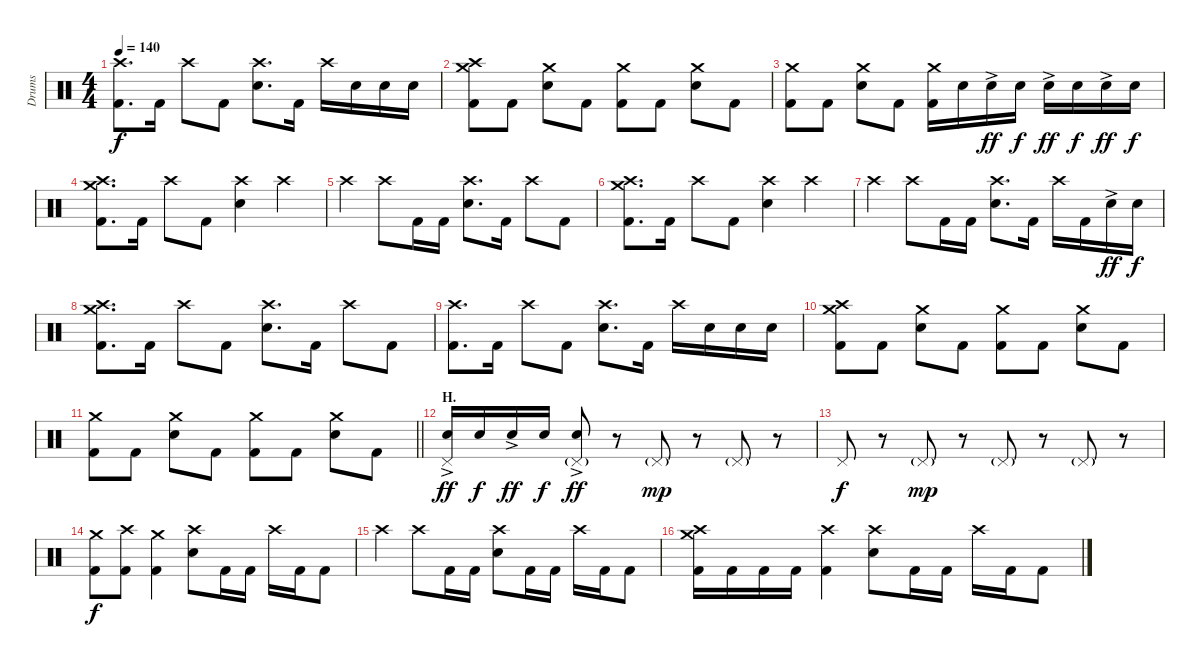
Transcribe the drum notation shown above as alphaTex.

\track ("Drums" "Drums") {instrument percussion}
\staff {score}
\articulation defaults
\ts (4 4)
\tempo 140
\clef neutral
\ks c
("Crash high (hit)" "Kick (hit) 2").8{d dy f} "Kick (hit) 2".16 "Crash high (hit)".8 "Kick (hit) 2".8 ("Crash high (hit)" "Electric Snare (hit)").8{d} "Kick (hit) 2".16 "Crash high (hit)".16 "Electric Snare (hit)".16 "Electric Snare (hit)".16 "Electric Snare (hit)".16 |
("Crash medium (hit)" "Crash high (hit)" "Kick (hit) 2").8 "Kick (hit) 2".8 ("Crash medium (hit)" "Electric Snare (hit)").8 "Kick (hit) 2".8 ("Crash medium (hit)" "Kick (hit) 2").8 "Kick (hit) 2".8 ("Crash medium (hit)" "Electric Snare (hit)").8 "Kick (hit) 2".8 |
("Crash medium (hit)" "Kick (hit) 2").8 "Kick (hit) 2".8 ("Crash medium (hit)" "Electric Snare (hit)").8 "Kick (hit) 2".8 ("Crash medium (hit)" "Kick (hit) 2").16 "Electric Snare (hit)".16 "Electric Snare (hit)"{ac}.16{dy ff} "Electric Snare (hit)".16{dy f} "Electric Snare (hit)"{ac}.16{dy ff} "Electric Snare (hit)".16{dy f} "Electric Snare (hit)"{ac}.16{dy ff} "Electric Snare (hit)".16{dy f} |
("Crash medium (hit)" "Crash high (hit)" "Kick (hit) 2").8{d} "Kick (hit) 2".16 "Crash high (hit)".8 "Kick (hit) 2".8 ("Crash high (hit)" "Electric Snare (hit)").4 "Crash high (hit)".4 |
"Crash high (hit)".4 "Crash high (hit)".8 "Kick (hit) 2".16 "Kick (hit) 2".16 ("Crash high (hit)" "Electric Snare (hit)").8{d} "Kick (hit) 2".16 "Crash high (hit)".8 "Kick (hit) 2".8 |
("Crash medium (hit)" "Crash high (hit)" "Kick (hit) 2").8{d} "Kick (hit) 2".16 "Crash high (hit)".8 "Kick (hit) 2".8 ("Crash high (hit)" "Electric Snare (hit)").4 "Crash high (hit)".4 |
"Crash high (hit)".4 "Crash high (hit)".8 "Kick (hit) 2".16 "Kick (hit) 2".16 ("Crash high (hit)" "Electric Snare (hit)").8{d} "Kick (hit) 2".16 "Crash high (hit)".16 "Kick (hit) 2".16 "Electric Snare (hit)"{ac}.16{dy ff} "Electric Snare (hit)".16{dy f} |
("Crash medium (hit)" "Crash high (hit)" "Kick (hit) 2").8{d} "Kick (hit) 2".16 "Crash high (hit)".8 "Kick (hit) 2".8 ("Crash high (hit)" "Electric Snare (hit)").8{d} "Kick (hit) 2".16 "Crash high (hit)".8 "Kick (hit) 2".8 |
("Crash high (hit)" "Kick (hit) 2").8{d} "Kick (hit) 2".16 "Crash high (hit)".8 "Kick (hit) 2".8 ("Crash high (hit)" "Electric Snare (hit)").8{d} "Kick (hit) 2".16 "Crash high (hit)".16 "Electric Snare (hit)".16 "Electric Snare (hit)".16 "Electric Snare (hit)".16 |
("Crash medium (hit)" "Crash high (hit)" "Kick (hit) 2").8 "Kick (hit) 2".8 ("Crash medium (hit)" "Electric Snare (hit)").8 "Kick (hit) 2".8 ("Crash medium (hit)" "Kick (hit) 2").8 "Kick (hit) 2".8 ("Crash medium (hit)" "Electric Snare (hit)").8 "Kick (hit) 2".8 |
\barLineRight lightlight
("Crash medium (hit)" "Kick (hit) 2").8 "Kick (hit) 2".8 ("Crash medium (hit)" "Electric Snare (hit)").8 "Kick (hit) 2".8 ("Crash medium (hit)" "Kick (hit) 2").8 "Kick (hit) 2".8 ("Crash medium (hit)" "Electric Snare (hit)").8 "Kick (hit) 2".8 |
\section ("" "H.")
("Pedal Hi-Hat (hit)" "Electric Snare (hit)"{ac}).16{dy ff} "Electric Snare (hit)".16{dy f} "Electric Snare (hit)"{ac}.16{dy ff} "Electric Snare (hit)".16{dy f} ("Pedal Hi-Hat (hit)"{g} "Electric Snare (hit)"{ac}).8{dy ff} r.8 "Pedal Hi-Hat (hit)"{g}.8{dy mp} r.8 "Pedal Hi-Hat (hit)"{g}.8 r.8 |
"Pedal Hi-Hat (hit)".8{dy f} r.8 "Pedal Hi-Hat (hit)"{g}.8{dy mp} r.8 "Pedal Hi-Hat (hit)"{g}.8 r.8 "Pedal Hi-Hat (hit)"{g}.8 r.8 |
("Crash medium (hit)" "Kick (hit) 2").8{dy f} ("Crash high (hit)" "Kick (hit) 2").8 ("Crash medium (hit)" "Kick (hit) 2").4 ("Crash high (hit)" "Electric Snare (hit)").8 "Kick (hit) 2".16 "Kick (hit) 2".16 "Crash high (hit)".16 "Kick (hit) 2".16 "Kick (hit) 2".8 |
"Crash high (hit)".4 "Crash high (hit)".8 "Kick (hit) 2".16 "Kick (hit) 2".16 ("Crash high (hit)" "Electric Snare (hit)").8 "Kick (hit) 2".16 "Kick (hit) 2".16 "Crash high (hit)".16 "Kick (hit) 2".16 "Kick (hit) 2".8 |
("Crash medium (hit)" "Crash high (hit)" "Kick (hit) 2").16 "Kick (hit) 2".16 "Kick (hit) 2".16 "Kick (hit) 2".16 ("Crash high (hit)" "Kick (hit) 2").4 ("Crash high (hit)" "Electric Snare (hit)").8 "Kick (hit) 2".16 "Kick (hit) 2".16 "Crash high (hit)".16 "Kick (hit) 2".16 "Kick (hit) 2".8
